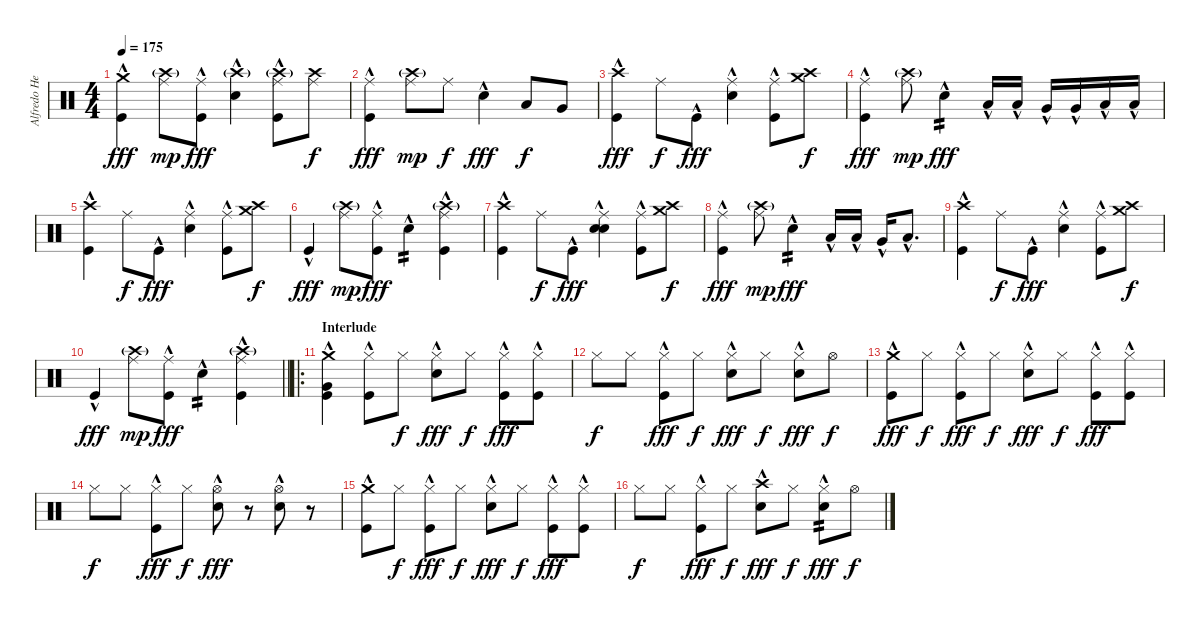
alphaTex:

\track ("Alfredo Hernández - Drums" "Alfredo He") {instrument percussion}
\staff {score}
\articulation defaults
\ts (4 4)
\tempo 175
\clef neutral
\ks c
("Crash medium (hit)" "Kick (hit)"{hac}).4{dy fff} ("Crash high (hit)"{g} "Ride (middle)").8{dy mp} ("Ride (middle)" "Kick (hit)"{hac}).8{dy fff} ("Crash high (hit)"{g} "Snare (hit) 2"{hac}).4 ("Crash high (hit)"{g} "Ride (middle)" "Kick (hit)"{hac}).8 ("Crash high (hit)" "Ride (middle)").8{dy f} |
("Ride (middle)" "Kick (hit)"{hac}).4{dy fff} ("Crash high (hit)"{g} "Ride (middle)").8{dy mp} "Ride (middle)".8{dy f} "Snare (hit) 2"{hac}.4{dy fff} "Low Tom (hit)".8{dy f} "Very Low Tom (hit)".8 |
("Crash high (hit)" "Kick (hit)"{hac}).4{dy fff} "Ride (middle)".8{dy f} "Kick (hit)"{hac}.8{dy fff} ("Ride (middle)" "Snare (hit) 2"{hac}).4 ("Ride (middle)" "Kick (hit)"{hac}).8 ("Crash high (hit)" "Crash medium (hit)").8{dy f} |
("Ride (middle)" "Kick (hit)"{hac}).4{dy fff} ("Crash high (hit)"{g} "Ride (middle)").8{dy mp} "Snare (hit) 2"{hac}.4{tp 2 dy fff} "Low Tom (hit)"{hac}.16 "Low Tom (hit)"{hac}.16 "Very Low Tom (hit)"{hac}.16 "Very Low Tom (hit)"{hac}.16 "Low Floor Tom (hit)"{hac}.16 "Low Floor Tom (hit)"{hac}.16 |
("Crash high (hit)" "Kick (hit)"{hac}).4 "Ride (middle)".8{dy f} "Kick (hit)"{hac}.8{dy fff} ("Ride (middle)" "Snare (hit) 2"{hac}).4 ("Ride (middle)" "Kick (hit)"{hac}).8 ("Crash high (hit)" "Crash medium (hit)").8{dy f} |
"Kick (hit)"{hac}.4{dy fff} ("Crash high (hit)"{g} "Ride (middle)").8{dy mp} ("Ride (middle)" "Kick (hit)"{hac}).8{dy fff} "Snare (hit) 2"{hac}.4{tp 2} ("Crash high (hit)"{g} "Ride (middle)" "Kick (hit)"{hac}).4 |
("Crash high (hit)" "Kick (hit)"{hac}).4 "Ride (middle)".8{dy f} "Kick (hit)"{hac}.8{dy fff} ("Ride (middle)" "Snare (hit) 2"{hac} "Snare (hit) 2"{hac}).4 ("Ride (middle)" "Kick (hit)"{hac}).8 ("Crash high (hit)" "Crash medium (hit)").8{dy f} |
("Ride (middle)" "Kick (hit)"{hac}).4{dy fff} ("Crash high (hit)"{g} "Ride (middle)").8{dy mp} "Snare (hit) 2"{hac}.4{tp 2 dy fff} "Low Tom (hit)"{hac}.16 "Low Tom (hit)"{hac}.16 "Very Low Tom (hit)"{hac}.16 "Low Floor Tom (hit)"{hac}.8{d} |
("Crash high (hit)" "Kick (hit)"{hac}).4 "Ride (middle)".8{dy f} "Kick (hit)"{hac}.8{dy fff} ("Ride (middle)" "Snare (hit) 2"{hac}).4 ("Ride (middle)" "Kick (hit)"{hac}).8 ("Crash high (hit)" "Crash medium (hit)").8{dy f} |
\barLineRight lightlight "Kick (hit)"{hac}.4{dy fff}
("Crash high (hit)"{g} "Ride (middle)").8{dy mp} ("Ride (middle)" "Kick (hit)"{hac}).8{dy fff} "Snare (hit) 2"{hac}.4{tp 2} ("Crash high (hit)"{g} "Ride (middle)" "Kick (hit)"{hac}).4 |
\ro
\section ("" "Interlude")
("Crash medium (hit)" "Very Low Tom (hit)"{hac} "Kick (hit)"{hac}).4 ("Hi-Hat (closed)" "Kick (hit)"{hac}).8 "Hi-Hat (closed)".8{dy f} ("Hi-Hat (closed)" "Snare (hit) 2"{hac}).8{dy fff} "Hi-Hat (closed)".8{dy f} ("Hi-Hat (closed)" "Kick (hit)"{hac}).8{dy fff} ("Hi-Hat (closed)" "Kick (hit)"{hac}).8 |
"Hi-Hat (closed)".8{dy f} "Hi-Hat (closed)".8 ("Hi-Hat (closed)" "Kick (hit)"{hac}).8{dy fff} "Hi-Hat (closed)".8{dy f} ("Hi-Hat (closed)" "Snare (hit) 2"{hac}).8{dy fff} "Hi-Hat (closed)".8{dy f} ("Hi-Hat (closed)" "Snare (hit) 2"{hac}).8{dy fff} "Hi-Hat (open)".8{dy f} |
("Crash medium (hit)" "Kick (hit)"{hac}).8{dy fff} "Hi-Hat (closed)".8{dy f} ("Hi-Hat (closed)" "Kick (hit)"{hac}).8{dy fff} "Hi-Hat (closed)".8{dy f} ("Hi-Hat (closed)" "Snare (hit) 2"{hac}).8{dy fff} "Hi-Hat (closed)".8{dy f} ("Hi-Hat (closed)" "Kick (hit)"{hac}).8{dy fff} ("Hi-Hat (closed)" "Kick (hit)"{hac}).8 |
"Hi-Hat (closed)".8{dy f} "Hi-Hat (closed)".8 ("Hi-Hat (closed)" "Kick (hit)"{hac}).8{dy fff} "Hi-Hat (closed)".8{dy f} ("Hi-Hat (open)" "Snare (hit) 2"{hac}).8{dy fff} r.8 ("Hi-Hat (open)" "Snare (hit) 2"{hac}).8 r.8 |
("Crash medium (hit)" "Kick (hit)"{hac}).8 "Hi-Hat (closed)".8{dy f} ("Hi-Hat (closed)" "Kick (hit)"{hac}).8{dy fff} "Hi-Hat (closed)".8{dy f} ("Hi-Hat (closed)" "Snare (hit) 2"{hac}).8{dy fff} "Hi-Hat (closed)".8{dy f} ("Hi-Hat (closed)" "Kick (hit)"{hac}).8{dy fff} ("Hi-Hat (closed)" "Kick (hit)"{hac}).8 |
"Hi-Hat (closed)".8{dy f} "Hi-Hat (closed)".8 ("Hi-Hat (closed)" "Kick (hit)"{hac}).8{dy fff} "Hi-Hat (closed)".8{dy f} ("Crash high (hit)" "Snare (hit) 2"{hac}).8{dy fff} "Hi-Hat (closed)".8{dy f} ("Hi-Hat (closed)" "Snare (hit) 2"{hac}).8{tp 2 dy fff} "Hi-Hat (open)".8{dy f}
